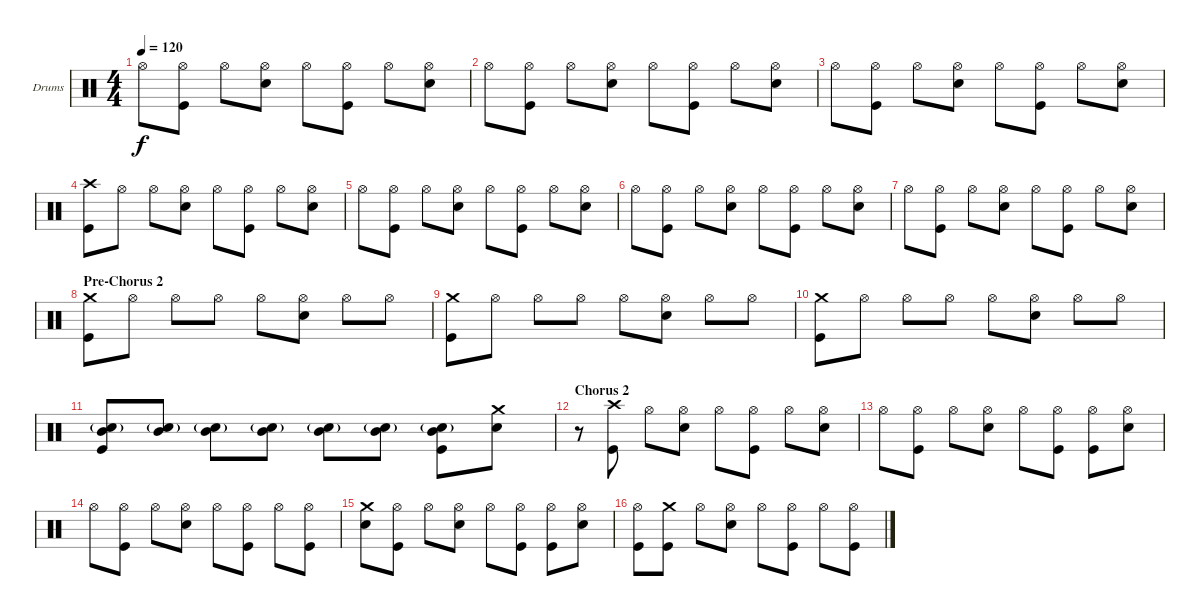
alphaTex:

\bracketExtendMode groupsimilarinstruments
\firstSystemTrackNameOrientation horizontal
\otherSystemsTrackNameOrientation horizontal
\track ("Drumkit" "Drums") {instrument percussion}
\staff {score}
\articulation defaults
\ts (4 4)
\tempo 120
\clef neutral
\ks c "Hi-Hat (open)".8{dy f}
("Hi-Hat (open)" "Kick (hit)").8 "Hi-Hat (open)".8 ("Hi-Hat (open)" "Snare (hit) 2").8 "Hi-Hat (open)".8 ("Hi-Hat (open)" "Kick (hit)").8 "Hi-Hat (open)".8 ("Hi-Hat (open)" "Snare (hit) 2").8 |
"Hi-Hat (open)".8 ("Hi-Hat (open)" "Kick (hit)").8 "Hi-Hat (open)".8 ("Hi-Hat (open)" "Snare (hit) 2").8 "Hi-Hat (open)".8 ("Hi-Hat (open)" "Kick (hit)").8 "Hi-Hat (open)".8 ("Hi-Hat (open)" "Snare (hit) 2").8 |
"Hi-Hat (open)".8 ("Hi-Hat (open)" "Kick (hit)").8 "Hi-Hat (open)".8 ("Hi-Hat (open)" "Snare (hit) 2").8 "Hi-Hat (open)".8 ("Hi-Hat (open)" "Kick (hit)").8 "Hi-Hat (open)".8 ("Hi-Hat (open)" "Snare (hit) 2").8 |
("Crash high (hit)" "Kick (hit)").8 "Hi-Hat (open)".8 "Hi-Hat (open)".8 ("Hi-Hat (open)" "Snare (hit) 2").8 "Hi-Hat (open)".8 ("Hi-Hat (open)" "Kick (hit)").8 "Hi-Hat (open)".8 ("Hi-Hat (open)" "Snare (hit) 2").8 |
"Hi-Hat (open)".8 ("Hi-Hat (open)" "Kick (hit)").8 "Hi-Hat (open)".8 ("Hi-Hat (open)" "Snare (hit) 2").8 "Hi-Hat (open)".8 ("Hi-Hat (open)" "Kick (hit)").8 "Hi-Hat (open)".8 ("Hi-Hat (open)" "Snare (hit) 2").8 |
"Hi-Hat (open)".8 ("Hi-Hat (open)" "Kick (hit)").8 "Hi-Hat (open)".8 ("Hi-Hat (open)" "Snare (hit) 2").8 "Hi-Hat (open)".8 ("Hi-Hat (open)" "Kick (hit)").8 "Hi-Hat (open)".8 ("Hi-Hat (open)" "Snare (hit) 2").8 |
"Hi-Hat (open)".8 ("Hi-Hat (open)" "Kick (hit)").8 "Hi-Hat (open)".8 ("Hi-Hat (open)" "Snare (hit) 2").8 "Hi-Hat (open)".8 ("Hi-Hat (open)" "Kick (hit)").8 "Hi-Hat (open)".8 ("Hi-Hat (open)" "Snare (hit) 2").8 |
\section ("" "Pre-Chorus 2")
("Crash medium (hit)" "Kick (hit)").8 "Hi-Hat (open)".8 "Hi-Hat (open)".8 "Hi-Hat (open)".8 "Hi-Hat (open)".8 ("Hi-Hat (open)" "Snare (hit) 2").8 "Hi-Hat (open)".8 "Hi-Hat (open)".8 |
("Crash medium (hit)" "Kick (hit)").8 "Hi-Hat (open)".8 "Hi-Hat (open)".8 "Hi-Hat (open)".8 "Hi-Hat (open)".8 ("Hi-Hat (open)" "Snare (hit) 2").8 "Hi-Hat (open)".8 "Hi-Hat (open)".8 |
("Crash medium (hit)" "Kick (hit)").8 "Hi-Hat (open)".8 "Hi-Hat (open)".8 "Hi-Hat (open)".8 "Hi-Hat (open)".8 ("Hi-Hat (open)" "Snare (hit) 2").8 "Hi-Hat (open)".8 "Hi-Hat (open)".8 |
("Snare (hit) 2"{g} "Mid Tom (hit)" "Kick (hit)").8 ("Snare (hit) 2"{g} "Mid Tom (hit)").8 ("Snare (hit) 2"{g} "Mid Tom (hit)").8 ("Snare (hit) 2"{g} "Mid Tom (hit)").8 ("Snare (hit) 2"{g} "Mid Tom (hit)").8 ("Snare (hit) 2"{g} "Mid Tom (hit)").8 ("Snare (hit) 2"{g} "Mid Tom (hit)" "Kick (hit)").8 ("Crash medium (hit)" "Snare (hit) 2").8 |
\section ("" "Chorus 2 ")
r.8 ("Crash high (hit)" "Kick (hit)").8 "Hi-Hat (open)".8 ("Hi-Hat (open)" "Snare (hit) 2").8 "Hi-Hat (open)".8 ("Hi-Hat (open)" "Kick (hit)").8 "Hi-Hat (open)".8 ("Hi-Hat (open)" "Snare (hit) 2").8 |
"Hi-Hat (open)".8 ("Hi-Hat (open)" "Kick (hit)").8 "Hi-Hat (open)".8 ("Hi-Hat (open)" "Snare (hit) 2").8 "Hi-Hat (open)".8 ("Hi-Hat (open)" "Kick (hit)").8 ("Hi-Hat (open)" "Kick (hit)").8 ("Hi-Hat (open)" "Snare (hit) 2").8 |
"Hi-Hat (open)".8 ("Hi-Hat (open)" "Kick (hit)").8 "Hi-Hat (open)".8 ("Hi-Hat (open)" "Snare (hit) 2").8 "Hi-Hat (open)".8 ("Hi-Hat (open)" "Kick (hit)").8 "Hi-Hat (open)".8 ("Hi-Hat (open)" "Kick (hit)").8 |
("Crash medium (hit)" "Snare (hit) 2").8 ("Hi-Hat (open)" "Kick (hit)").8 "Hi-Hat (open)".8 ("Hi-Hat (open)" "Snare (hit) 2").8 "Hi-Hat (open)".8 ("Hi-Hat (open)" "Kick (hit)").8 ("Hi-Hat (open)" "Kick (hit)").8 ("Hi-Hat (open)" "Snare (hit) 2").8 |
("Hi-Hat (open)" "Kick (hit)").8 ("Crash medium (hit)" "Kick (hit)").8 "Hi-Hat (open)".8 ("Hi-Hat (open)" "Snare (hit) 2").8 "Hi-Hat (open)".8 ("Hi-Hat (open)" "Kick (hit)").8 "Hi-Hat (open)".8 ("Hi-Hat (open)" "Kick (hit)").8
